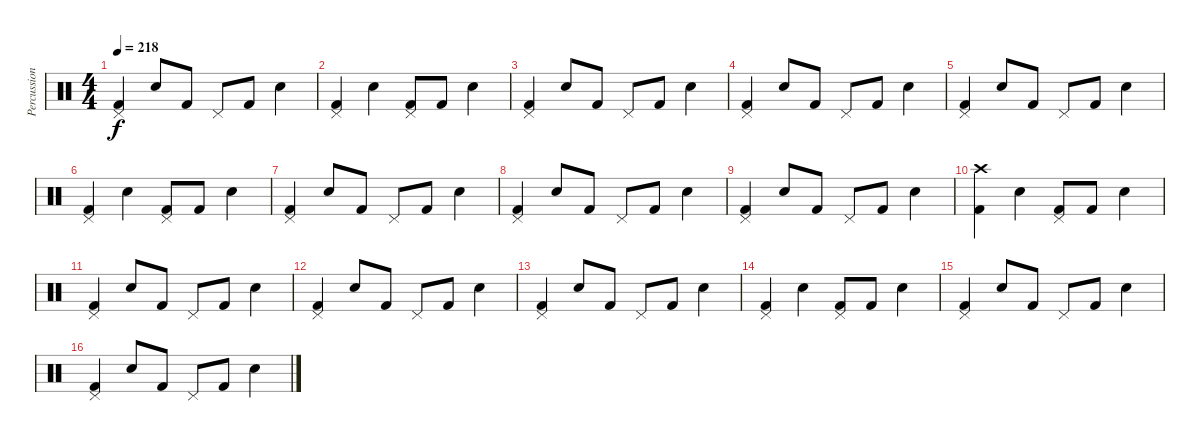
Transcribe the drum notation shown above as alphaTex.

\track ("Percussion" "Percussion") {instrument percussion}
\staff {score}
\articulation defaults
\ts (4 4)
\tempo 218
\clef neutral
\ks c
("Kick (hit) 2" "Pedal Hi-Hat (hit)").4{dy f} "Snare (hit) 2".8 "Kick (hit) 2".8 "Pedal Hi-Hat (hit)".8 "Kick (hit) 2".8 "Snare (hit) 2".4 |
("Kick (hit) 2" "Pedal Hi-Hat (hit)").4 "Snare (hit) 2".4 ("Kick (hit) 2" "Pedal Hi-Hat (hit)").8 "Kick (hit) 2".8 "Snare (hit) 2".4 |
("Kick (hit) 2" "Pedal Hi-Hat (hit)").4 "Snare (hit) 2".8 "Kick (hit) 2".8 "Pedal Hi-Hat (hit)".8 "Kick (hit) 2".8 "Snare (hit) 2".4 |
("Kick (hit) 2" "Pedal Hi-Hat (hit)").4 "Snare (hit) 2".8 "Kick (hit) 2".8 "Pedal Hi-Hat (hit)".8 "Kick (hit) 2".8 "Snare (hit) 2".4 |
("Kick (hit) 2" "Pedal Hi-Hat (hit)").4 "Snare (hit) 2".8 "Kick (hit) 2".8 "Pedal Hi-Hat (hit)".8 "Kick (hit) 2".8 "Snare (hit) 2".4 |
("Kick (hit) 2" "Pedal Hi-Hat (hit)").4 "Snare (hit) 2".4 ("Kick (hit) 2" "Pedal Hi-Hat (hit)").8 "Kick (hit) 2".8 "Snare (hit) 2".4 |
("Kick (hit) 2" "Pedal Hi-Hat (hit)").4 "Snare (hit) 2".8 "Kick (hit) 2".8 "Pedal Hi-Hat (hit)".8 "Kick (hit) 2".8 "Snare (hit) 2".4 |
("Kick (hit) 2" "Pedal Hi-Hat (hit)").4 "Snare (hit) 2".8 "Kick (hit) 2".8 "Pedal Hi-Hat (hit)".8 "Kick (hit) 2".8 "Snare (hit) 2".4 |
("Kick (hit) 2" "Pedal Hi-Hat (hit)").4 "Snare (hit) 2".8 "Kick (hit) 2".8 "Pedal Hi-Hat (hit)".8 "Kick (hit) 2".8 "Snare (hit) 2".4 |
("Kick (hit) 2" "Crash high (hit)").4 "Snare (hit) 2".4 ("Kick (hit) 2" "Pedal Hi-Hat (hit)").8 "Kick (hit) 2".8 "Snare (hit) 2".4 |
("Kick (hit) 2" "Pedal Hi-Hat (hit)").4 "Snare (hit) 2".8 "Kick (hit) 2".8 "Pedal Hi-Hat (hit)".8 "Kick (hit) 2".8 "Snare (hit) 2".4 |
("Kick (hit) 2" "Pedal Hi-Hat (hit)").4 "Snare (hit) 2".8 "Kick (hit) 2".8 "Pedal Hi-Hat (hit)".8 "Kick (hit) 2".8 "Snare (hit) 2".4 |
("Kick (hit) 2" "Pedal Hi-Hat (hit)").4 "Snare (hit) 2".8 "Kick (hit) 2".8 "Pedal Hi-Hat (hit)".8 "Kick (hit) 2".8 "Snare (hit) 2".4 |
("Kick (hit) 2" "Pedal Hi-Hat (hit)").4 "Snare (hit) 2".4 ("Kick (hit) 2" "Pedal Hi-Hat (hit)").8 "Kick (hit) 2".8 "Snare (hit) 2".4 |
("Kick (hit) 2" "Pedal Hi-Hat (hit)").4 "Snare (hit) 2".8 "Kick (hit) 2".8 "Pedal Hi-Hat (hit)".8 "Kick (hit) 2".8 "Snare (hit) 2".4 |
("Kick (hit) 2" "Pedal Hi-Hat (hit)").4 "Snare (hit) 2".8 "Kick (hit) 2".8 "Pedal Hi-Hat (hit)".8 "Kick (hit) 2".8 "Snare (hit) 2".4
